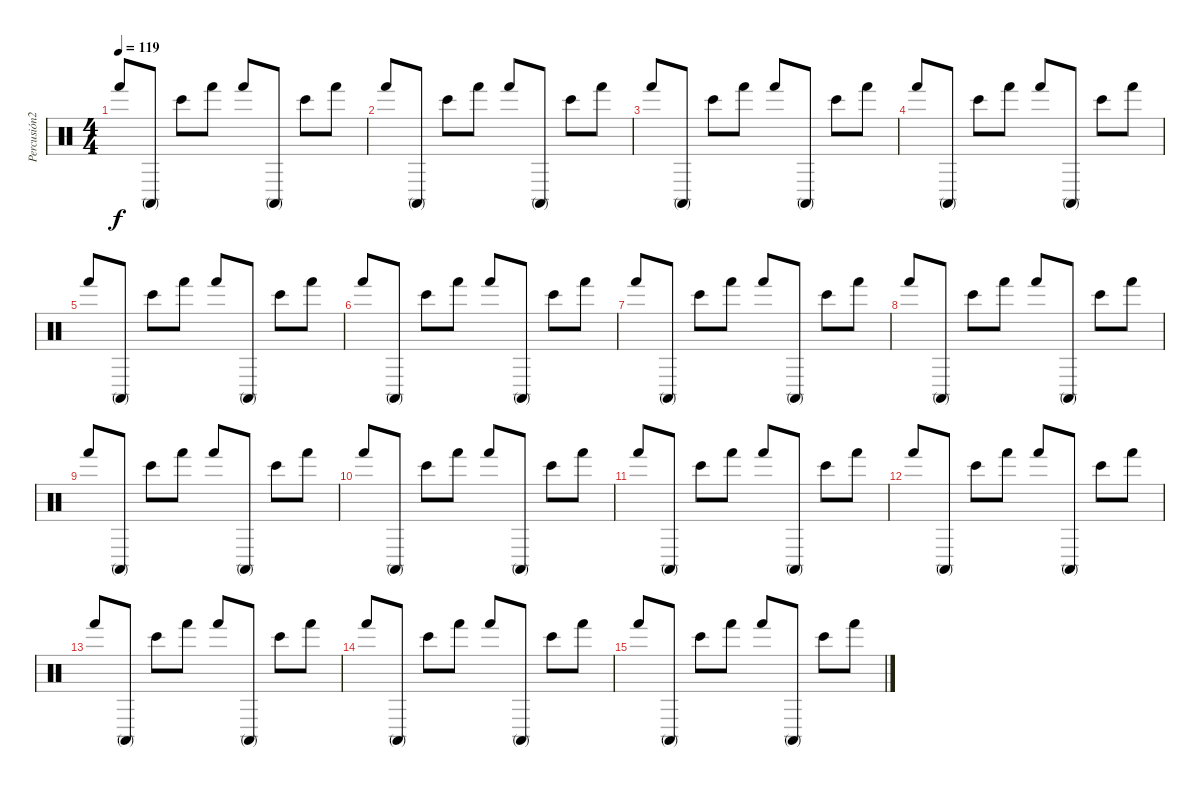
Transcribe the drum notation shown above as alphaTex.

\track ("Percusión2" "Percusión2") {instrument percussion}
\staff {score}
\articulation defaults
\ts (4 4)
\tempo 119
\clef neutral
\ks c "Hand (hit)".8{dy f} "Conga high (mute)".8 "Bongo High (hit)".8 "Hand (hit)".8 "Hand (hit)".8 "Conga high (mute)".8 "Bongo High (hit)".8 "Hand (hit)".8
|
"Hand (hit)".8 "Conga high (mute)".8 "Bongo High (hit)".8 "Hand (hit)".8 "Hand (hit)".8 "Conga high (mute)".8 "Bongo High (hit)".8 "Hand (hit)".8 |
"Hand (hit)".8 "Conga high (mute)".8 "Bongo High (hit)".8 "Hand (hit)".8 "Hand (hit)".8 "Conga high (mute)".8 "Bongo High (hit)".8 "Hand (hit)".8 |
"Hand (hit)".8 "Conga high (mute)".8 "Bongo High (hit)".8 "Hand (hit)".8 "Hand (hit)".8 "Conga high (mute)".8 "Bongo High (hit)".8 "Hand (hit)".8 |
"Hand (hit)".8 "Conga high (mute)".8 "Bongo High (hit)".8 "Hand (hit)".8 "Hand (hit)".8 "Conga high (mute)".8 "Bongo High (hit)".8 "Hand (hit)".8 |
"Hand (hit)".8 "Conga high (mute)".8 "Bongo High (hit)".8 "Hand (hit)".8 "Hand (hit)".8 "Conga high (mute)".8 "Bongo High (hit)".8 "Hand (hit)".8 |
"Hand (hit)".8 "Conga high (mute)".8 "Bongo High (hit)".8 "Hand (hit)".8 "Hand (hit)".8 "Conga high (mute)".8 "Bongo High (hit)".8 "Hand (hit)".8 |
"Hand (hit)".8 "Conga high (mute)".8 "Bongo High (hit)".8 "Hand (hit)".8 "Hand (hit)".8 "Conga high (mute)".8 "Bongo High (hit)".8 "Hand (hit)".8 |
"Hand (hit)".8 "Conga high (mute)".8 "Bongo High (hit)".8 "Hand (hit)".8 "Hand (hit)".8 "Conga high (mute)".8 "Bongo High (hit)".8 "Hand (hit)".8 |
"Hand (hit)".8 "Conga high (mute)".8 "Bongo High (hit)".8 "Hand (hit)".8 "Hand (hit)".8 "Conga high (mute)".8 "Bongo High (hit)".8 "Hand (hit)".8 |
"Hand (hit)".8 "Conga high (mute)".8 "Bongo High (hit)".8 "Hand (hit)".8 "Hand (hit)".8 "Conga high (mute)".8 "Bongo High (hit)".8 "Hand (hit)".8 |
"Hand (hit)".8 "Conga high (mute)".8 "Bongo High (hit)".8 "Hand (hit)".8 "Hand (hit)".8 "Conga high (mute)".8 "Bongo High (hit)".8 "Hand (hit)".8 |
"Hand (hit)".8 "Conga high (mute)".8 "Bongo High (hit)".8 "Hand (hit)".8 "Hand (hit)".8 "Conga high (mute)".8 "Bongo High (hit)".8 "Hand (hit)".8 |
"Hand (hit)".8 "Conga high (mute)".8 "Bongo High (hit)".8 "Hand (hit)".8 "Hand (hit)".8 "Conga high (mute)".8 "Bongo High (hit)".8 "Hand (hit)".8 |
"Hand (hit)".8 "Conga high (mute)".8 "Bongo High (hit)".8 "Hand (hit)".8 "Hand (hit)".8 "Conga high (mute)".8 "Bongo High (hit)".8 "Hand (hit)".8
